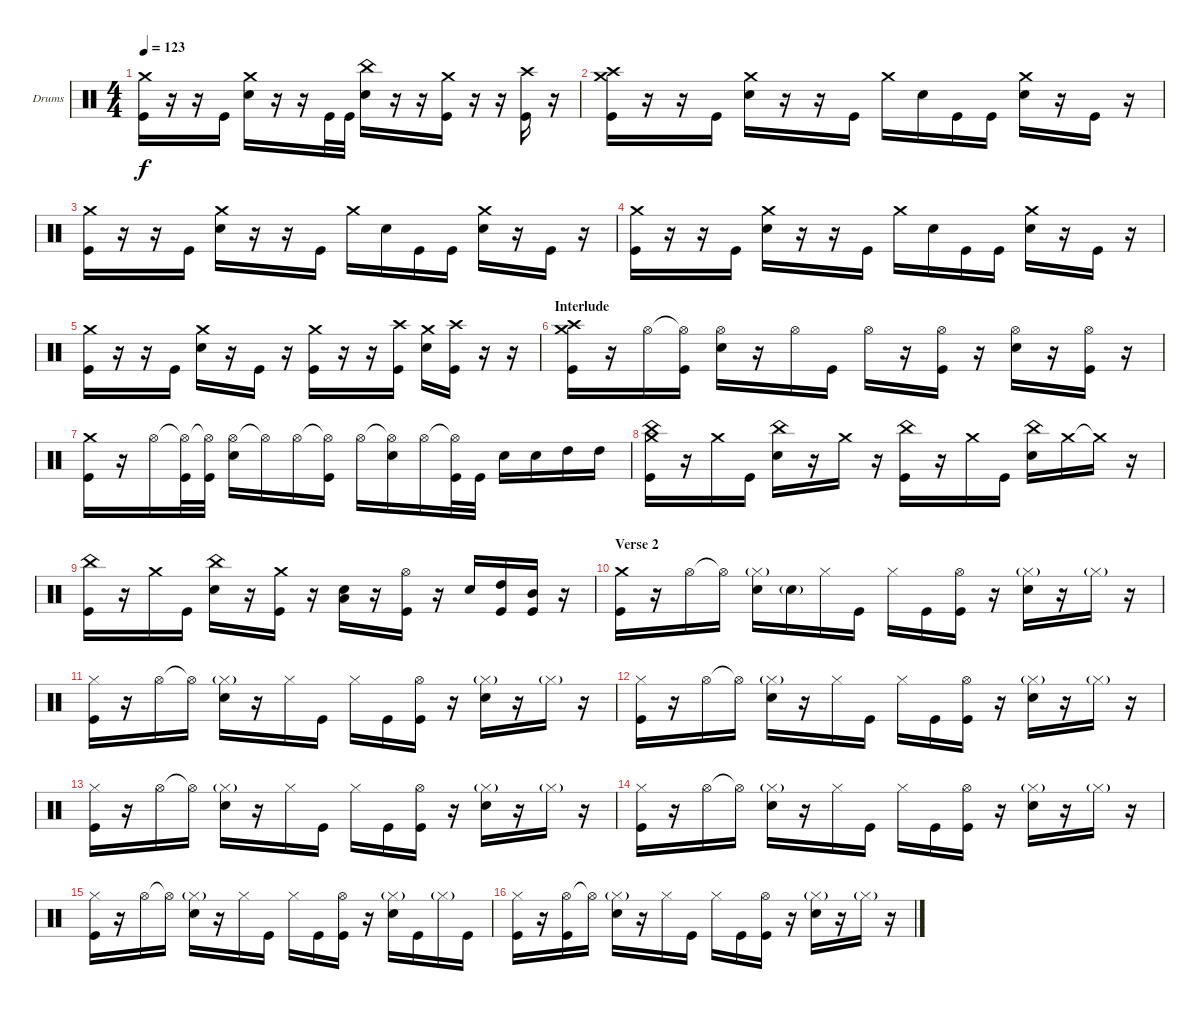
\bracketExtendMode groupsimilarinstruments
\firstSystemTrackNameOrientation horizontal
\otherSystemsTrackNameOrientation horizontal
\track ("Drumkit" "Drums") {instrument percussion}
\staff {score}
\articulation defaults
\ts (4 4)
\tempo 123
\clef neutral
\ks c
("Crash medium (hit)" "Kick (hit)").16{dy f} r.16 r.16 "Kick (hit)".16 ("Crash medium (hit)" "Snare (hit) 2").16 r.16 r.16 "Kick (hit)".32 "Kick (hit)".32 ("China (hit)" "Snare (hit) 2").16 r.16 r.16 ("Crash medium (hit)" "Kick (hit)").16 r.16 r.16 ("Crash high (hit)" "Kick (hit)").16 r.16 |
("Crash medium (hit)" "Crash high (hit)" "Kick (hit)").16 r.16 r.16 "Kick (hit)".16 ("Crash medium (hit)" "Snare (hit) 2").16 r.16 r.16 "Kick (hit)".16 "Crash medium (hit)".16 "Snare (hit) 2".16 "Kick (hit)".16 "Kick (hit)".16 ("Crash medium (hit)" "Snare (hit) 2").16 r.16 "Kick (hit)".16 r.16 |
("Crash medium (hit)" "Kick (hit)").16 r.16 r.16 "Kick (hit)".16 ("Crash medium (hit)" "Snare (hit) 2").16 r.16 r.16 "Kick (hit)".16 "Crash medium (hit)".16 "Snare (hit) 2".16 "Kick (hit)".16 "Kick (hit)".16 ("Crash medium (hit)" "Snare (hit) 2").16 r.16 "Kick (hit)".16 r.16 |
("Crash medium (hit)" "Kick (hit)").16 r.16 r.16 "Kick (hit)".16 ("Crash medium (hit)" "Snare (hit) 2").16 r.16 r.16 "Kick (hit)".16 "Crash medium (hit)".16 "Snare (hit) 2".16 "Kick (hit)".16 "Kick (hit)".16 ("Crash medium (hit)" "Snare (hit) 2").16 r.16 "Kick (hit)".16 r.16 |
("Crash medium (hit)" "Kick (hit)").16 r.16 r.16 "Kick (hit)".16 ("Crash medium (hit)" "Snare (hit) 2").16 r.16 "Kick (hit)".16 r.16 ("Crash medium (hit)" "Kick (hit)").16 r.16 r.16 ("Crash high (hit)" "Kick (hit)").16 ("Crash medium (hit)" "Snare (hit) 2").16 ("Crash high (hit)" "Kick (hit)").16 r.16 r.16 |
\section ("" "Interlude")
("Crash medium (hit)" "Crash high (hit)" "Kick (hit)").16 r.16 "Hi-Hat (open)".16 ("Hi-Hat (open)"{t} "Kick (hit)").16 ("Hi-Hat (open)" "Snare (hit) 2").16 r.16 "Hi-Hat (open)".16 "Kick (hit)".16 "Hi-Hat (open)".16 r.16 ("Hi-Hat (open)" "Kick (hit)").16 r.16 ("Hi-Hat (open)" "Snare (hit) 2").16 r.16 ("Hi-Hat (open)" "Kick (hit)").16 r.16 |
("Crash medium (hit)" "Kick (hit)").16 r.16 "Hi-Hat (open)".16 ("Hi-Hat (open)"{t} "Kick (hit)").32 ("Hi-Hat (open)"{t} "Kick (hit)").32 ("Hi-Hat (open)" "Snare (hit) 2").16 "Hi-Hat (open)"{t}.16 "Hi-Hat (open)".16 ("Hi-Hat (open)"{t} "Kick (hit)").16 "Hi-Hat (open)".16 ("Hi-Hat (open)"{t} "Snare (hit) 2").16 "Hi-Hat (open)".16 ("Hi-Hat (open)"{t} "Kick (hit)").32 "Kick (hit)".32 "Snare (hit) 2".16 "Snare (hit) 2".16 "High Tom (hit)".16 "High Tom (hit)".16 |
("Crash medium (hit)" "China (hit)" "Kick (hit)").16 r.16 "Crash medium (hit)".16 "Kick (hit)".16 ("China (hit)" "Snare (hit) 2").16 r.16 "Crash medium (hit)".16 r.16 ("China (hit)" "Kick (hit)").16 r.16 "Crash medium (hit)".16 "Kick (hit)".16 ("China (hit)" "Snare (hit) 2").16 "Crash medium (hit)".16 "Crash medium (hit)"{t}.16 r.16 |
("China (hit)" "Kick (hit)").16 r.16 "Crash medium (hit)".16 "Kick (hit)".16 ("China (hit)" "Snare (hit) 2").16 r.16 ("Crash medium (hit)" "Kick (hit)").16 r.16 ("Snare (hit) 2" "Low Tom (hit)").16 r.16 ("Hi-Hat (open)" "Kick (hit)").16 r.16 "Snare (hit) 2".16 ("High Tom (hit)" "Kick (hit)").16 ("Mid Tom (hit)" "Kick (hit)").16 r.16 |
\section ("" "Verse 2")
("Crash medium (hit)" "Kick (hit)").16 r.16 "Hi-Hat (open)".16 "Hi-Hat (open)"{t}.16 ("Hi-Hat (closed)"{g} "Snare (hit) 2").16 "Snare (hit) 2"{g}.16 "Hi-Hat (closed)".16 "Kick (hit)".16 "Hi-Hat (closed)".16 "Kick (hit)".16 ("Hi-Hat (open)" "Kick (hit)").16 r.16 ("Hi-Hat (closed)"{g} "Snare (hit) 2").16 r.16 "Hi-Hat (closed)"{g}.16 r.16 |
("Hi-Hat (closed)" "Kick (hit)").16 r.16 "Hi-Hat (open)".16 "Hi-Hat (open)"{t}.16 ("Hi-Hat (closed)"{g} "Snare (hit) 2").16 r.16 "Hi-Hat (closed)".16 "Kick (hit)".16 "Hi-Hat (closed)".16 "Kick (hit)".16 ("Hi-Hat (open)" "Kick (hit)").16 r.16 ("Hi-Hat (closed)"{g} "Snare (hit) 2").16 r.16 "Hi-Hat (closed)"{g}.16 r.16 |
("Hi-Hat (closed)" "Kick (hit)").16 r.16 "Hi-Hat (open)".16 "Hi-Hat (open)"{t}.16 ("Hi-Hat (closed)"{g} "Snare (hit) 2").16 r.16 "Hi-Hat (closed)".16 "Kick (hit)".16 "Hi-Hat (closed)".16 "Kick (hit)".16 ("Hi-Hat (open)" "Kick (hit)").16 r.16 ("Hi-Hat (closed)"{g} "Snare (hit) 2").16 r.16 "Hi-Hat (closed)"{g}.16 r.16 |
("Hi-Hat (closed)" "Kick (hit)").16 r.16 "Hi-Hat (open)".16 "Hi-Hat (open)"{t}.16 ("Hi-Hat (closed)"{g} "Snare (hit) 2").16 r.16 "Hi-Hat (closed)".16 "Kick (hit)".16 "Hi-Hat (closed)".16 "Kick (hit)".16 ("Hi-Hat (open)" "Kick (hit)").16 r.16 ("Hi-Hat (closed)"{g} "Snare (hit) 2").16 r.16 "Hi-Hat (closed)"{g}.16 r.16 |
("Hi-Hat (closed)" "Kick (hit)").16 r.16 "Hi-Hat (open)".16 "Hi-Hat (open)"{t}.16 ("Hi-Hat (closed)"{g} "Snare (hit) 2").16 r.16 "Hi-Hat (closed)".16 "Kick (hit)".16 "Hi-Hat (closed)".16 "Kick (hit)".16 ("Hi-Hat (open)" "Kick (hit)").16 r.16 ("Hi-Hat (closed)"{g} "Snare (hit) 2").16 r.16 "Hi-Hat (closed)"{g}.16 r.16 |
("Hi-Hat (closed)" "Kick (hit)").16 r.16 "Hi-Hat (open)".16 "Hi-Hat (open)"{t}.16 ("Hi-Hat (closed)"{g} "Snare (hit) 2").16 r.16 "Hi-Hat (closed)".16 "Kick (hit)".16 "Hi-Hat (closed)".16 "Kick (hit)".16 ("Hi-Hat (open)" "Kick (hit)").16 r.16 ("Hi-Hat (closed)"{g} "Snare (hit) 2").16 "Kick (hit)".16 "Hi-Hat (closed)"{g}.16 "Kick (hit)".16 |
("Hi-Hat (closed)" "Kick (hit)").16 r.16 ("Hi-Hat (open)" "Kick (hit)").16 "Hi-Hat (open)"{t}.16 ("Hi-Hat (closed)"{g} "Snare (hit) 2").16 r.16 "Hi-Hat (closed)".16 "Kick (hit)".16 "Hi-Hat (closed)".16 "Kick (hit)".16 ("Hi-Hat (open)" "Kick (hit)").16 r.16 ("Hi-Hat (closed)"{g} "Snare (hit) 2").16 r.16 "Hi-Hat (closed)"{g}.16 r.16
